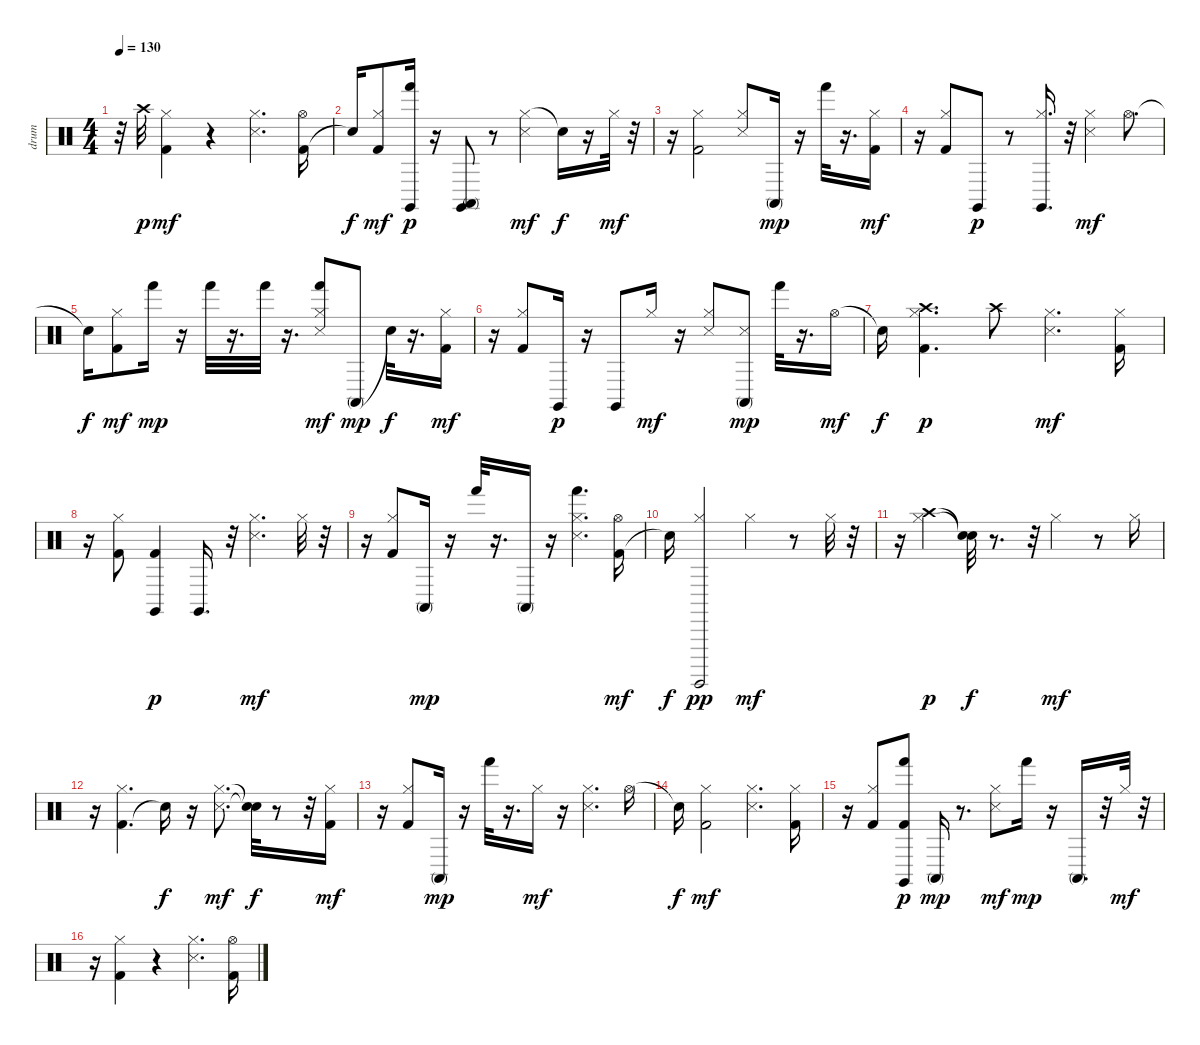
\track ("drum" "drum") {instrument percussion}
\staff {score}
\articulation defaults
\ts (4 4)
\tempo 130
\clef neutral
\ks c
r.32{dy mp} "Crash high (hit)".32{dy p} ("Kick (hit) 2" "Hi-Hat (closed)").4{dy mf} r.4 ("Snare (side stick) 3" "Hi-Hat (closed)").4{d} ("Kick (hit) 2" "Hi-Hat (open)").16 |
"Snare (hit)"{t}.16{dy f} ("Kick (hit) 2" "Hi-Hat (closed)").8{dy mf} ("Hand (hit)" "Claves (hit)").16{dy p} r.16 ("Conga high (mute)" "Claves (hit)").8 r.8 ("Hi-Hat (closed)" "Snare (side stick) 3").4{dy mf} "Snare (hit)"{t}.16{dy f} r.16 "Hi-Hat (closed)".32{dy mf} r.32 |
r.16 ("Kick (hit) 2" "Hi-Hat (closed)").2 ("Hi-Hat (closed)" "Snare (side stick) 3").8 "Conga high (mute)".16{dy mp} r.16 "Hand (hit)".32 r.16{d} ("Hi-Hat (closed)" "Kick (hit) 2").16{dy mf} |
r.16 ("Kick (hit) 2" "Hi-Hat (closed)").8 "Claves (hit)".8{dy p} r.8 ("Hi-Hat (closed)" "Claves (hit)").16{d} r.32 ("Hi-Hat (closed)" "Snare (side stick) 3").4{dy mf} "Hi-Hat (open)".8{d} |
"Snare (hit)"{t}.16{dy f} ("Kick (hit) 2" "Hi-Hat (closed)").8{dy mf} "Hand (hit)".16{dy mp} r.16 "Hand (hit)".32 r.16{d} "Hand (hit)".32 r.16{d} ("Hi-Hat (closed)" "Hand (hit)" "Snare (side stick) 3").8{dy mf} "Conga high (mute)".8{dy mp} "Snare (hit)"{t}.32{dy f} r.16{d} ("Kick (hit) 2" "Hi-Hat (closed)").16{dy mf} |
r.16 ("Kick (hit) 2" "Hi-Hat (closed)").8 "Claves (hit)".16{dy p} r.16 "Claves (hit)".8 "Hi-Hat (closed)".16{dy mf} r.16 ("Hi-Hat (closed)" "Snare (side stick) 3").8 ("Snare (side stick) 3" "Conga high (mute)").8{dy mp} "Hand (hit)".32 r.16{d} "Hi-Hat (open)".16{dy mf} |
"Snare (hit)"{t}.16{dy f} ("Kick (hit) 2" "Hi-Hat (closed)" "Crash high (hit)").4{d dy p} "Crash high (hit)".8 ("Hi-Hat (closed)" "Snare (side stick) 3").4{d dy mf} ("Kick (hit) 2" "Hi-Hat (closed)").16 |
r.16 ("Kick (hit) 2" "Hi-Hat (closed)").8 ("Kick (hit) 2" "Claves (hit)").4{dy p} "Claves (hit)".16{d} r.32 ("Hi-Hat (closed)" "Snare (side stick) 3").4{d dy mf} "Hi-Hat (closed)".32 r.32 |
r.16 ("Kick (hit) 2" "Hi-Hat (closed)").8 "Conga high (mute)".16{dy mp} r.16 "Hand (hit)".32 r.16{d} "Conga high (mute)".16 r.16 ("Hi-Hat (closed)" "Snare (side stick) 3" "Hand (hit)").4{d} ("Kick (hit) 2" "Hi-Hat (open)").16{dy mf} |
"Snare (hit)"{t}.16{dy f} ("Hi-Hat (closed)" "Surdo (hit)").2{dy pp} "Hi-Hat (closed)".4{dy mf} r.8 "Hi-Hat (closed)".32 r.32 |
r.16 ("Hi-Hat (closed)" "Crash high (hit)").4{dy p} ("Snare (hit)"{t} "Snare (hit)"{t}).32{dy f} r.8{d} r.32 "Hi-Hat (closed)".4{dy mf} r.8 "Hi-Hat (closed)".16 |
r.16 ("Kick (hit) 2" "Hi-Hat (closed)").4{d} "Snare (hit)"{t}.16{dy f} r.16 ("Snare (side stick) 3" "Hi-Hat (closed)").8{d dy mf} ("Snare (hit)"{t} "Snare (hit)"{t}).32{dy f} r.8 r.32 ("Hi-Hat (closed)" "Kick (hit) 2").16{dy mf} |
r.16 ("Kick (hit) 2" "Hi-Hat (closed)").8 "Conga high (mute)".16{dy mp} r.16 "Hand (hit)".32 r.16{d} "Hi-Hat (closed)".16{dy mf} r.16 ("Hi-Hat (closed)" "Snare (side stick) 3").4{d} "Hi-Hat (open)".16 |
"Snare (hit)"{t}.16{dy f} ("Kick (hit) 2" "Hi-Hat (closed)").2{dy mf} ("Hi-Hat (closed)" "Snare (side stick) 3").4{d} ("Kick (hit) 2" "Hi-Hat (closed)").16 |
r.16 ("Hi-Hat (closed)" "Kick (hit) 2").8 ("Kick (hit) 2" "Hand (hit)" "Claves (hit)").8{dy p} "Conga high (mute)".16{dy mp} r.8{d} ("Hi-Hat (closed)" "Snare (side stick) 3").8{dy mf} "Hand (hit)".16{dy mp} r.16 "Conga high (mute)".16{d} r.32 "Hi-Hat (closed)".32{dy mf} r.32 |
r.16 ("Kick (hit) 2" "Hi-Hat (closed)").4 r.4 ("Hi-Hat (closed)" "Snare (side stick) 3").4{d} ("Kick (hit) 2" "Hi-Hat (open)").16
